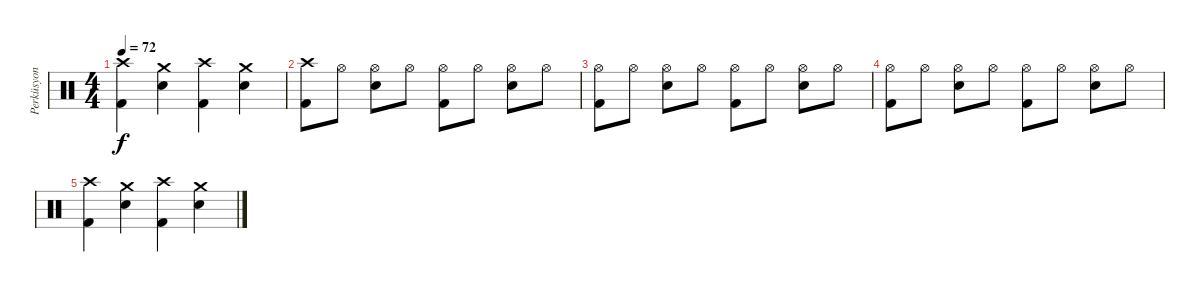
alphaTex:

\track ("Perküsyon" "Perküsyon") {instrument percussion}
\staff {score}
\articulation defaults
\ts (4 4)
\tempo 72
\clef neutral
\ks c
("Crash high (hit)" "Kick (hit) 2").4{dy f} ("Crash medium (hit)" "Electric Snare (hit)").4 ("Crash high (hit)" "Kick (hit) 2").4 ("Crash medium (hit)" "Electric Snare (hit)").4 |
("Crash high (hit)" "Kick (hit) 2").8 "Hi-Hat (open)".8 ("Hi-Hat (open)" "Electric Snare (hit)").8 "Hi-Hat (open)".8 ("Hi-Hat (open)" "Kick (hit) 2").8 "Hi-Hat (open)".8 ("Hi-Hat (open)" "Electric Snare (hit)").8 "Hi-Hat (open)".8 |
("Hi-Hat (open)" "Kick (hit) 2").8 "Hi-Hat (open)".8 ("Hi-Hat (open)" "Electric Snare (hit)").8 "Hi-Hat (open)".8 ("Hi-Hat (open)" "Kick (hit) 2").8 "Hi-Hat (open)".8 ("Hi-Hat (open)" "Electric Snare (hit)").8 "Hi-Hat (open)".8 |
("Hi-Hat (open)" "Kick (hit) 2").8 "Hi-Hat (open)".8 ("Hi-Hat (open)" "Electric Snare (hit)").8 "Hi-Hat (open)".8 ("Hi-Hat (open)" "Kick (hit) 2").8 "Hi-Hat (open)".8 ("Hi-Hat (open)" "Electric Snare (hit)").8 "Hi-Hat (open)".8 |
("Crash high (hit)" "Kick (hit) 2").4 ("Crash medium (hit)" "Electric Snare (hit)").4 ("Crash high (hit)" "Kick (hit) 2").4 ("Crash medium (hit)" "Electric Snare (hit)").4
